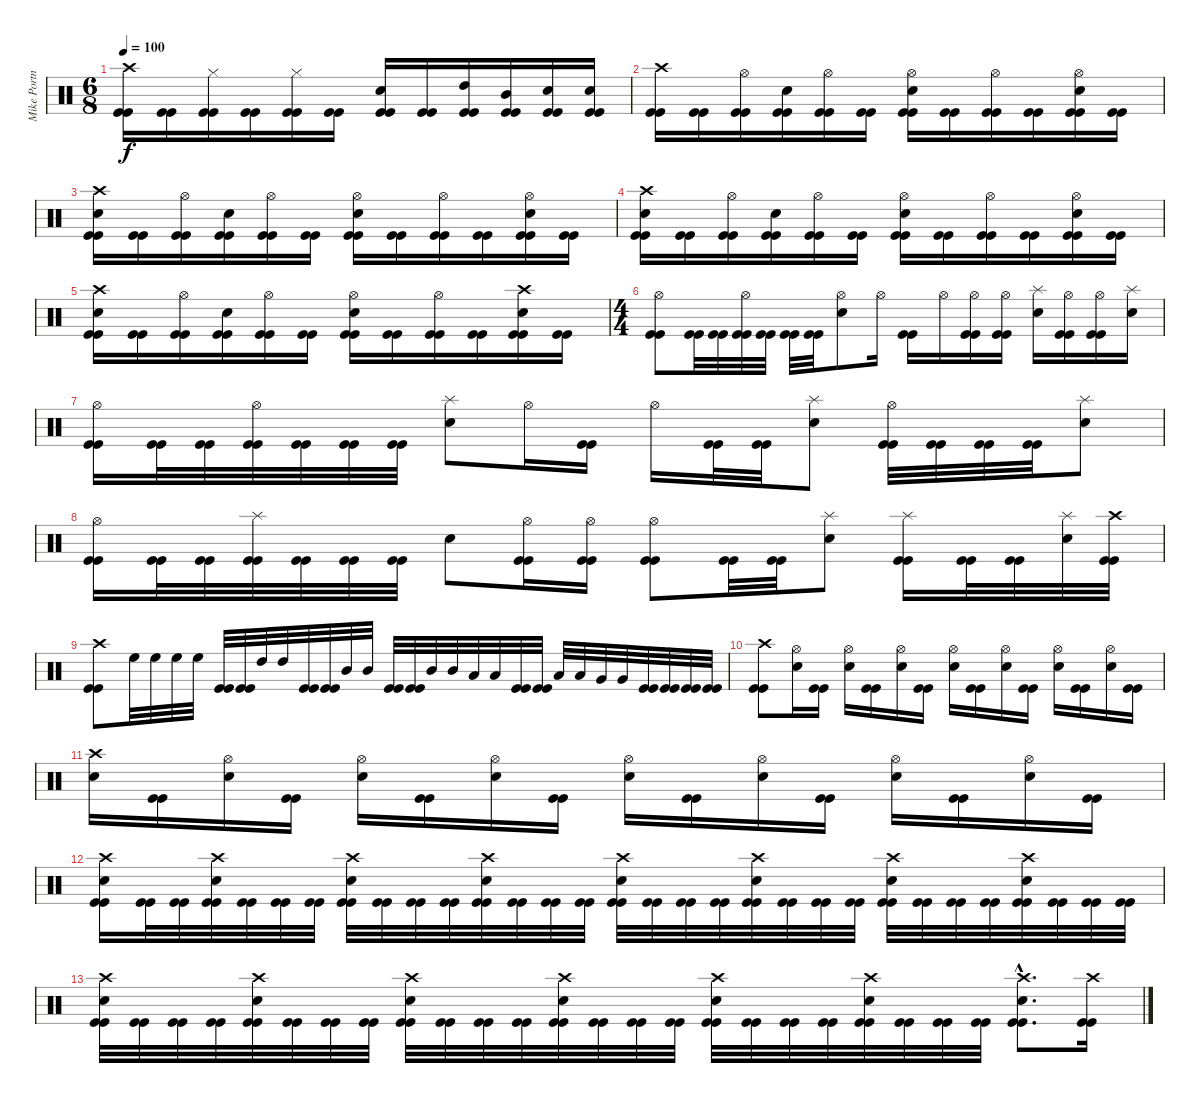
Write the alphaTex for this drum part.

\track ("Mike Portnoy - Drum" "Mike Portn") {instrument percussion}
\staff {score}
\articulation defaults
\ts (6 8)
\tempo 100
\clef neutral
\ks c
("Crash high (hit)" "Kick (hit)" "Kick (hit)").16{dy f} ("Kick (hit)" "Kick (hit)").16 ("Hi-Hat (closed)" "Kick (hit)" "Kick (hit)").16 ("Kick (hit)" "Kick (hit)").16 ("Hi-Hat (closed)" "Kick (hit)" "Kick (hit)").16 ("Kick (hit)" "Kick (hit)").16 ("Snare (hit) 2" "Kick (hit)" "Kick (hit)").16 ("Kick (hit)" "Kick (hit)").16 ("High Tom (hit)" "Kick (hit)" "Kick (hit)").16 ("Mid Tom (hit)" "Kick (hit)" "Kick (hit)").16 ("Snare (hit) 2" "Kick (hit)" "Kick (hit)").16 ("Snare (hit) 2" "Kick (hit)" "Kick (hit)").16 |
("Crash high (hit)" "Kick (hit)" "Kick (hit)").16 ("Kick (hit)" "Kick (hit)").16 ("Hi-Hat (open)" "Kick (hit)" "Kick (hit)").16 ("Snare (hit) 2" "Kick (hit)" "Kick (hit)").16 ("Hi-Hat (open)" "Kick (hit)" "Kick (hit)").16 ("Kick (hit)" "Kick (hit)").16 ("Hi-Hat (open)" "Snare (hit) 2" "Kick (hit)" "Kick (hit)").16 ("Kick (hit)" "Kick (hit)").16 ("Hi-Hat (open)" "Kick (hit)" "Kick (hit)").16 ("Kick (hit)" "Kick (hit)").16 ("Hi-Hat (open)" "Snare (hit) 2" "Kick (hit)" "Kick (hit)").16 ("Kick (hit)" "Kick (hit)").16 |
("Crash high (hit)" "Snare (hit) 2" "Kick (hit)" "Kick (hit)").16 ("Kick (hit)" "Kick (hit)").16 ("Hi-Hat (open)" "Kick (hit)" "Kick (hit)").16 ("Snare (hit) 2" "Kick (hit)" "Kick (hit)").16 ("Hi-Hat (open)" "Kick (hit)" "Kick (hit)").16 ("Kick (hit)" "Kick (hit)").16 ("Hi-Hat (open)" "Snare (hit) 2" "Kick (hit)" "Kick (hit)").16 ("Kick (hit)" "Kick (hit)").16 ("Hi-Hat (open)" "Kick (hit)" "Kick (hit)").16 ("Kick (hit)" "Kick (hit)").16 ("Hi-Hat (open)" "Snare (hit) 2" "Kick (hit)" "Kick (hit)").16 ("Kick (hit)" "Kick (hit)").16 |
("Crash high (hit)" "Snare (hit) 2" "Kick (hit)" "Kick (hit)").16 ("Kick (hit)" "Kick (hit)").16 ("Hi-Hat (open)" "Kick (hit)" "Kick (hit)").16 ("Snare (hit) 2" "Kick (hit)" "Kick (hit)").16 ("Hi-Hat (open)" "Kick (hit)" "Kick (hit)").16 ("Kick (hit)" "Kick (hit)").16 ("Hi-Hat (open)" "Snare (hit) 2" "Kick (hit)" "Kick (hit)").16 ("Kick (hit)" "Kick (hit)").16 ("Hi-Hat (open)" "Kick (hit)" "Kick (hit)").16 ("Kick (hit)" "Kick (hit)").16 ("Hi-Hat (open)" "Snare (hit) 2" "Kick (hit)" "Kick (hit)").16 ("Kick (hit)" "Kick (hit)").16 |
("Crash high (hit)" "Snare (hit) 2" "Kick (hit)" "Kick (hit)").16 ("Kick (hit)" "Kick (hit)").16 ("Hi-Hat (open)" "Kick (hit)" "Kick (hit)").16 ("Snare (hit) 2" "Kick (hit)" "Kick (hit)").16 ("Hi-Hat (open)" "Kick (hit)" "Kick (hit)").16 ("Kick (hit)" "Kick (hit)").16 ("Hi-Hat (open)" "Snare (hit) 2" "Kick (hit)" "Kick (hit)").16 ("Kick (hit)" "Kick (hit)").16 ("Hi-Hat (open)" "Kick (hit)" "Kick (hit)").16 ("Kick (hit)" "Kick (hit)").16 ("Crash high (hit)" "Snare (hit) 2" "Kick (hit)" "Kick (hit)").16 ("Kick (hit)" "Kick (hit)").16 |
\ts (4 4)
("Hi-Hat (open)" "Kick (hit)" "Kick (hit)").8 ("Kick (hit)" "Kick (hit)").32 ("Kick (hit)" "Kick (hit)").32 ("Hi-Hat (open)" "Kick (hit)" "Kick (hit)").32 ("Kick (hit)" "Kick (hit)").32 ("Kick (hit)" "Kick (hit)").32 ("Kick (hit)" "Kick (hit)").32 ("Hi-Hat (open)" "Snare (hit) 2").8 "Hi-Hat (open)".16 ("Kick (hit)" "Kick (hit)").16 "Hi-Hat (open)".16 ("Hi-Hat (open)" "Kick (hit)" "Kick (hit)").16 ("Hi-Hat (open)" "Kick (hit)" "Kick (hit)").16 ("Splash (hit)" "Snare (hit) 2").16 ("Hi-Hat (open)" "Kick (hit)" "Kick (hit)").16 ("Hi-Hat (open)" "Kick (hit)" "Kick (hit)").16 ("Splash (hit)" "Snare (hit) 2").16 |
("Hi-Hat (open)" "Kick (hit)" "Kick (hit)").16 ("Kick (hit)" "Kick (hit)").32 ("Kick (hit)" "Kick (hit)").32 ("Hi-Hat (open)" "Kick (hit)" "Kick (hit)").32 ("Kick (hit)" "Kick (hit)").32 ("Kick (hit)" "Kick (hit)").32 ("Kick (hit)" "Kick (hit)").32 ("Splash (hit)" "Snare (hit) 2").8 "Hi-Hat (open)".16 ("Kick (hit)" "Kick (hit)").16 "Hi-Hat (open)".16 ("Kick (hit)" "Kick (hit)").32 ("Kick (hit)" "Kick (hit)").32 ("Splash (hit)" "Snare (hit) 2").8 ("Hi-Hat (open)" "Kick (hit)" "Kick (hit)").32 ("Kick (hit)" "Kick (hit)").32 ("Kick (hit)" "Kick (hit)").32 ("Kick (hit)" "Kick (hit)").32 ("Splash (hit)" "Snare (hit) 2").8 |
("Hi-Hat (open)" "Kick (hit)" "Kick (hit)").16 ("Kick (hit)" "Kick (hit)").32 ("Kick (hit)" "Kick (hit)").32 ("Splash (hit)" "Kick (hit)" "Kick (hit)").32 ("Kick (hit)" "Kick (hit)").32 ("Kick (hit)" "Kick (hit)").32 ("Kick (hit)" "Kick (hit)").32 "Snare (hit) 2".8 ("Hi-Hat (open)" "Kick (hit)" "Kick (hit)").16 ("Hi-Hat (open)" "Kick (hit)" "Kick (hit)").16 ("Hi-Hat (open)" "Kick (hit)" "Kick (hit)").8 ("Kick (hit)" "Kick (hit)").32 ("Kick (hit)" "Kick (hit)").32 ("Splash (hit)" "Snare (hit) 2").8 ("Splash (hit)" "Kick (hit)" "Kick (hit)").16 ("Kick (hit)" "Kick (hit)").32 ("Kick (hit)" "Kick (hit)").32 ("Splash (hit)" "Snare (hit) 2").32 ("Crash high (hit)" "Kick (hit)" "Kick (hit)").32 |
("Crash high (hit)" "Kick (hit)" "Kick (hit)").8 "High Floor Tom (hit)".32 "High Floor Tom (hit)".32 "High Floor Tom (hit)".32 "High Floor Tom (hit)".32 ("Kick (hit)" "Kick (hit)").32 ("Kick (hit)" "Kick (hit)").32 "High Tom (hit)".32 "High Tom (hit)".32 ("Kick (hit)" "Kick (hit)").32 ("Kick (hit)" "Kick (hit)").32 "Mid Tom (hit)".32 "Mid Tom (hit)".32 ("Kick (hit)" "Kick (hit)").32 ("Kick (hit)" "Kick (hit)").32 "Mid Tom (hit)".32 "Mid Tom (hit)".32 "Low Tom (hit)".32 "Low Tom (hit)".32 ("Kick (hit)" "Kick (hit)").32 ("Kick (hit)" "Kick (hit)").32 "Low Tom (hit)".32 "Low Tom (hit)".32 "Very Low Tom (hit)".32 "Very Low Tom (hit)".32 ("Kick (hit)" "Kick (hit)").32 ("Kick (hit)" "Kick (hit)").32 ("Kick (hit)" "Kick (hit)").32 ("Kick (hit)" "Kick (hit)").32 |
("Crash high (hit)" "Kick (hit)" "Kick (hit)").8 ("Hi-Hat (open)" "Snare (hit) 2").16 ("Kick (hit)" "Kick (hit)").16 ("Hi-Hat (open)" "Snare (hit) 2").16 ("Kick (hit)" "Kick (hit)").16 ("Hi-Hat (open)" "Snare (hit) 2").16 ("Kick (hit)" "Kick (hit)").16 ("Hi-Hat (open)" "Snare (hit) 2").16 ("Kick (hit)" "Kick (hit)").16 ("Hi-Hat (open)" "Snare (hit) 2").16 ("Kick (hit)" "Kick (hit)").16 ("Hi-Hat (open)" "Snare (hit) 2").16 ("Kick (hit)" "Kick (hit)").16 ("Hi-Hat (open)" "Snare (hit) 2").16 ("Kick (hit)" "Kick (hit)").16 |
("Crash high (hit)" "Snare (hit) 2").16 ("Kick (hit)" "Kick (hit)").16 ("Hi-Hat (open)" "Snare (hit) 2").16 ("Kick (hit)" "Kick (hit)").16 ("Hi-Hat (open)" "Snare (hit) 2").16 ("Kick (hit)" "Kick (hit)").16 ("Hi-Hat (open)" "Snare (hit) 2").16 ("Kick (hit)" "Kick (hit)").16 ("Hi-Hat (open)" "Snare (hit) 2").16 ("Kick (hit)" "Kick (hit)").16 ("Hi-Hat (open)" "Snare (hit) 2").16 ("Kick (hit)" "Kick (hit)").16 ("Hi-Hat (open)" "Snare (hit) 2").16 ("Kick (hit)" "Kick (hit)").16 ("Hi-Hat (open)" "Snare (hit) 2").16 ("Kick (hit)" "Kick (hit)").16 |
("Crash high (hit)" "Snare (hit) 2" "Kick (hit)" "Kick (hit)").16 ("Kick (hit)" "Kick (hit)").32 ("Kick (hit)" "Kick (hit)").32 ("Crash high (hit)" "Snare (hit) 2" "Kick (hit)" "Kick (hit)").32 ("Kick (hit)" "Kick (hit)").32 ("Kick (hit)" "Kick (hit)").32 ("Kick (hit)" "Kick (hit)").32 ("Crash high (hit)" "Snare (hit) 2" "Kick (hit)" "Kick (hit)").32 ("Kick (hit)" "Kick (hit)").32 ("Kick (hit)" "Kick (hit)").32 ("Kick (hit)" "Kick (hit)").32 ("Crash high (hit)" "Snare (hit) 2" "Kick (hit)" "Kick (hit)").32 ("Kick (hit)" "Kick (hit)").32 ("Kick (hit)" "Kick (hit)").32 ("Kick (hit)" "Kick (hit)").32 ("Crash high (hit)" "Snare (hit) 2" "Kick (hit)" "Kick (hit)").32 ("Kick (hit)" "Kick (hit)").32 ("Kick (hit)" "Kick (hit)").32 ("Kick (hit)" "Kick (hit)").32 ("Crash high (hit)" "Snare (hit) 2" "Kick (hit)" "Kick (hit)").32 ("Kick (hit)" "Kick (hit)").32 ("Kick (hit)" "Kick (hit)").32 ("Kick (hit)" "Kick (hit)").32 ("Crash high (hit)" "Snare (hit) 2" "Kick (hit)" "Kick (hit)").32 ("Kick (hit)" "Kick (hit)").32 ("Kick (hit)" "Kick (hit)").32 ("Kick (hit)" "Kick (hit)").32 ("Crash high (hit)" "Snare (hit) 2" "Kick (hit)" "Kick (hit)").32 ("Kick (hit)" "Kick (hit)").32 ("Kick (hit)" "Kick (hit)").32 ("Kick (hit)" "Kick (hit)").32 |
("Crash high (hit)" "Snare (hit) 2" "Kick (hit)" "Kick (hit)").32 ("Kick (hit)" "Kick (hit)").32 ("Kick (hit)" "Kick (hit)").32 ("Kick (hit)" "Kick (hit)").32 ("Crash high (hit)" "Snare (hit) 2" "Kick (hit)" "Kick (hit)").32 ("Kick (hit)" "Kick (hit)").32 ("Kick (hit)" "Kick (hit)").32 ("Kick (hit)" "Kick (hit)").32 ("Crash high (hit)" "Snare (hit) 2" "Kick (hit)" "Kick (hit)").32 ("Kick (hit)" "Kick (hit)").32 ("Kick (hit)" "Kick (hit)").32 ("Kick (hit)" "Kick (hit)").32 ("Crash high (hit)" "Snare (hit) 2" "Kick (hit)" "Kick (hit)").32 ("Kick (hit)" "Kick (hit)").32 ("Kick (hit)" "Kick (hit)").32 ("Kick (hit)" "Kick (hit)").32 ("Crash high (hit)" "Snare (hit) 2" "Kick (hit)" "Kick (hit)").32 ("Kick (hit)" "Kick (hit)").32 ("Kick (hit)" "Kick (hit)").32 ("Kick (hit)" "Kick (hit)").32 ("Crash high (hit)" "Snare (hit) 2" "Kick (hit)" "Kick (hit)").32 ("Kick (hit)" "Kick (hit)").32 ("Kick (hit)" "Kick (hit)").32 ("Kick (hit)" "Kick (hit)").32 ("Crash high (hit)"{hac} "Snare (hit) 2"{hac} "Kick (hit)"{hac} "Kick (hit)"{hac}).8{d} ("Crash high (hit)" "Kick (hit)" "Kick (hit)").16
